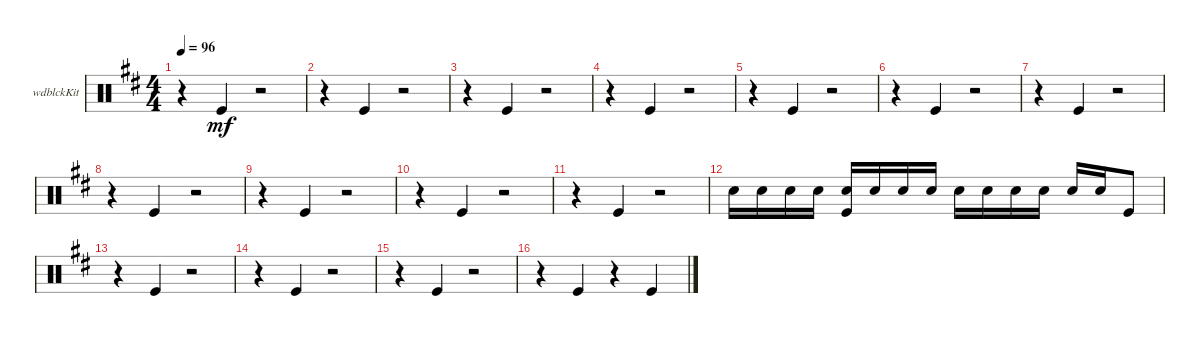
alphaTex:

\defaultSystemsLayout 4
\bracketExtendMode groupsimilarinstruments
\firstSystemTrackNameOrientation horizontal
\otherSystemsTrackNameOrientation horizontal
\track ("Woodblock" "wdblckKit") {instrument percussion}
\staff {score}
\articulation defaults
\ts (4 4)
\tempo 96
\clef neutral
\ks d
r.4{dy mf} "Kick (hit)".4 r.2 |
r.4 "Kick (hit)".4 r.2 |
r.4 "Kick (hit)".4 r.2 |
r.4 "Kick (hit)".4 r.2 |
r.4 "Kick (hit)".4 r.2 |
r.4 "Kick (hit)".4 r.2 |
r.4 "Kick (hit)".4 r.2 |
r.4 "Kick (hit)".4 r.2 |
r.4 "Kick (hit)".4 r.2 |
r.4 "Kick (hit)".4 r.2 |
r.4 "Kick (hit)".4 r.2 |
"Snare (hit) 2".16 "Snare (hit) 2".16 "Snare (hit) 2".16 "Snare (hit) 2".16 ("Snare (hit) 2" "Kick (hit)").16 "Snare (hit) 2".16 "Snare (hit) 2".16 "Snare (hit) 2".16 "Snare (hit) 2".16 "Snare (hit) 2".16 "Snare (hit) 2".16 "Snare (hit) 2".16 "Snare (hit) 2".16 "Snare (hit) 2".16 "Kick (hit)".8 |
r.4 "Kick (hit)".4 r.2 |
r.4 "Kick (hit)".4 r.2 |
r.4 "Kick (hit)".4 r.2 |
r.4 "Kick (hit)".4 r.4 "Kick (hit)".4
